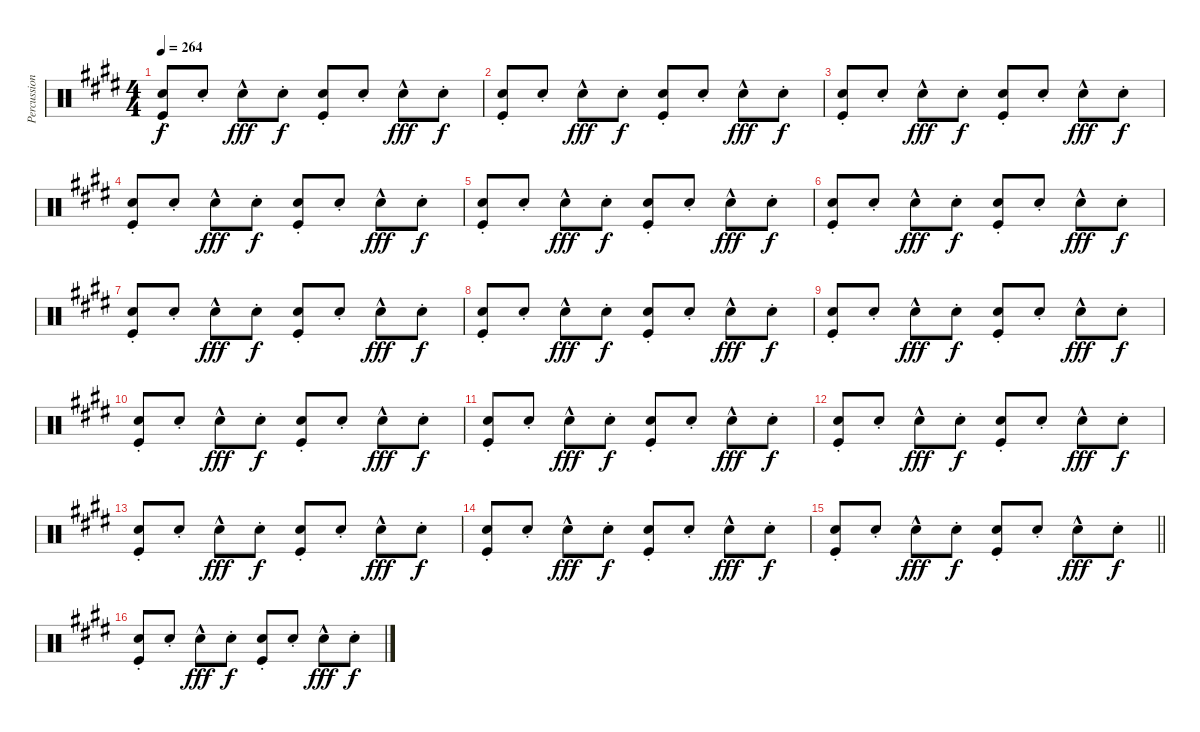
\track ("Percussion" "Percussion") {instrument percussion}
\staff {score}
\articulation defaults
\ts (4 4)
\tempo 264
\clef neutral
\ks e
("Snare (hit) 2"{st} "Kick (hit)").8{dy f} "Snare (hit) 2"{st}.8 "Snare (hit) 2"{hac}.8{dy fff} "Snare (hit) 2"{st}.8{dy f} ("Snare (hit) 2"{st} "Kick (hit)").8 "Snare (hit) 2"{st}.8 "Snare (hit) 2"{hac}.8{dy fff} "Snare (hit) 2"{st}.8{dy f} |
("Snare (hit) 2"{st} "Kick (hit)").8 "Snare (hit) 2"{st}.8 "Snare (hit) 2"{hac}.8{dy fff} "Snare (hit) 2"{st}.8{dy f} ("Snare (hit) 2"{st} "Kick (hit)").8 "Snare (hit) 2"{st}.8 "Snare (hit) 2"{hac}.8{dy fff} "Snare (hit) 2"{st}.8{dy f} |
("Snare (hit) 2"{st} "Kick (hit)").8 "Snare (hit) 2"{st}.8 "Snare (hit) 2"{hac}.8{dy fff} "Snare (hit) 2"{st}.8{dy f} ("Snare (hit) 2"{st} "Kick (hit)").8 "Snare (hit) 2"{st}.8 "Snare (hit) 2"{hac}.8{dy fff} "Snare (hit) 2"{st}.8{dy f} |
("Snare (hit) 2"{st} "Kick (hit)").8 "Snare (hit) 2"{st}.8 "Snare (hit) 2"{hac}.8{dy fff} "Snare (hit) 2"{st}.8{dy f} ("Snare (hit) 2"{st} "Kick (hit)").8 "Snare (hit) 2"{st}.8 "Snare (hit) 2"{hac}.8{dy fff} "Snare (hit) 2"{st}.8{dy f} |
("Snare (hit) 2"{st} "Kick (hit)").8 "Snare (hit) 2"{st}.8 "Snare (hit) 2"{hac}.8{dy fff} "Snare (hit) 2"{st}.8{dy f} ("Snare (hit) 2"{st} "Kick (hit)").8 "Snare (hit) 2"{st}.8 "Snare (hit) 2"{hac}.8{dy fff} "Snare (hit) 2"{st}.8{dy f} |
("Snare (hit) 2"{st} "Kick (hit)").8 "Snare (hit) 2"{st}.8 "Snare (hit) 2"{hac}.8{dy fff} "Snare (hit) 2"{st}.8{dy f} ("Snare (hit) 2"{st} "Kick (hit)").8 "Snare (hit) 2"{st}.8 "Snare (hit) 2"{hac}.8{dy fff} "Snare (hit) 2"{st}.8{dy f} |
("Snare (hit) 2"{st} "Kick (hit)").8 "Snare (hit) 2"{st}.8 "Snare (hit) 2"{hac}.8{dy fff} "Snare (hit) 2"{st}.8{dy f} ("Snare (hit) 2"{st} "Kick (hit)").8 "Snare (hit) 2"{st}.8 "Snare (hit) 2"{hac}.8{dy fff} "Snare (hit) 2"{st}.8{dy f} |
("Snare (hit) 2"{st} "Kick (hit)").8 "Snare (hit) 2"{st}.8 "Snare (hit) 2"{hac}.8{dy fff} "Snare (hit) 2"{st}.8{dy f} ("Snare (hit) 2"{st} "Kick (hit)").8 "Snare (hit) 2"{st}.8 "Snare (hit) 2"{hac}.8{dy fff} "Snare (hit) 2"{st}.8{dy f} |
("Snare (hit) 2"{st} "Kick (hit)").8 "Snare (hit) 2"{st}.8 "Snare (hit) 2"{hac}.8{dy fff} "Snare (hit) 2"{st}.8{dy f} ("Snare (hit) 2"{st} "Kick (hit)").8 "Snare (hit) 2"{st}.8 "Snare (hit) 2"{hac}.8{dy fff} "Snare (hit) 2"{st}.8{dy f} |
("Snare (hit) 2"{st} "Kick (hit)").8 "Snare (hit) 2"{st}.8 "Snare (hit) 2"{hac}.8{dy fff} "Snare (hit) 2"{st}.8{dy f} ("Snare (hit) 2"{st} "Kick (hit)").8 "Snare (hit) 2"{st}.8 "Snare (hit) 2"{hac}.8{dy fff} "Snare (hit) 2"{st}.8{dy f} |
("Snare (hit) 2"{st} "Kick (hit)").8 "Snare (hit) 2"{st}.8 "Snare (hit) 2"{hac}.8{dy fff} "Snare (hit) 2"{st}.8{dy f} ("Snare (hit) 2"{st} "Kick (hit)").8 "Snare (hit) 2"{st}.8 "Snare (hit) 2"{hac}.8{dy fff} "Snare (hit) 2"{st}.8{dy f} |
("Snare (hit) 2"{st} "Kick (hit)").8 "Snare (hit) 2"{st}.8 "Snare (hit) 2"{hac}.8{dy fff} "Snare (hit) 2"{st}.8{dy f} ("Snare (hit) 2"{st} "Kick (hit)").8 "Snare (hit) 2"{st}.8 "Snare (hit) 2"{hac}.8{dy fff} "Snare (hit) 2"{st}.8{dy f} |
("Snare (hit) 2"{st} "Kick (hit)").8 "Snare (hit) 2"{st}.8 "Snare (hit) 2"{hac}.8{dy fff} "Snare (hit) 2"{st}.8{dy f} ("Snare (hit) 2"{st} "Kick (hit)").8 "Snare (hit) 2"{st}.8 "Snare (hit) 2"{hac}.8{dy fff} "Snare (hit) 2"{st}.8{dy f} |
("Snare (hit) 2"{st} "Kick (hit)").8 "Snare (hit) 2"{st}.8 "Snare (hit) 2"{hac}.8{dy fff} "Snare (hit) 2"{st}.8{dy f} ("Snare (hit) 2"{st} "Kick (hit)").8 "Snare (hit) 2"{st}.8 "Snare (hit) 2"{hac}.8{dy fff} "Snare (hit) 2"{st}.8{dy f} |
\barLineRight lightlight
("Snare (hit) 2"{st} "Kick (hit)").8 "Snare (hit) 2"{st}.8 "Snare (hit) 2"{hac}.8{dy fff} "Snare (hit) 2"{st}.8{dy f} ("Snare (hit) 2"{st} "Kick (hit)").8 "Snare (hit) 2"{st}.8 "Snare (hit) 2"{hac}.8{dy fff} "Snare (hit) 2"{st}.8{dy f} |
("Snare (hit) 2"{st} "Kick (hit)").8 "Snare (hit) 2"{st}.8 "Snare (hit) 2"{hac}.8{dy fff} "Snare (hit) 2"{st}.8{dy f} ("Snare (hit) 2"{st} "Kick (hit)").8 "Snare (hit) 2"{st}.8 "Snare (hit) 2"{hac}.8{dy fff} "Snare (hit) 2"{st}.8{dy f}
